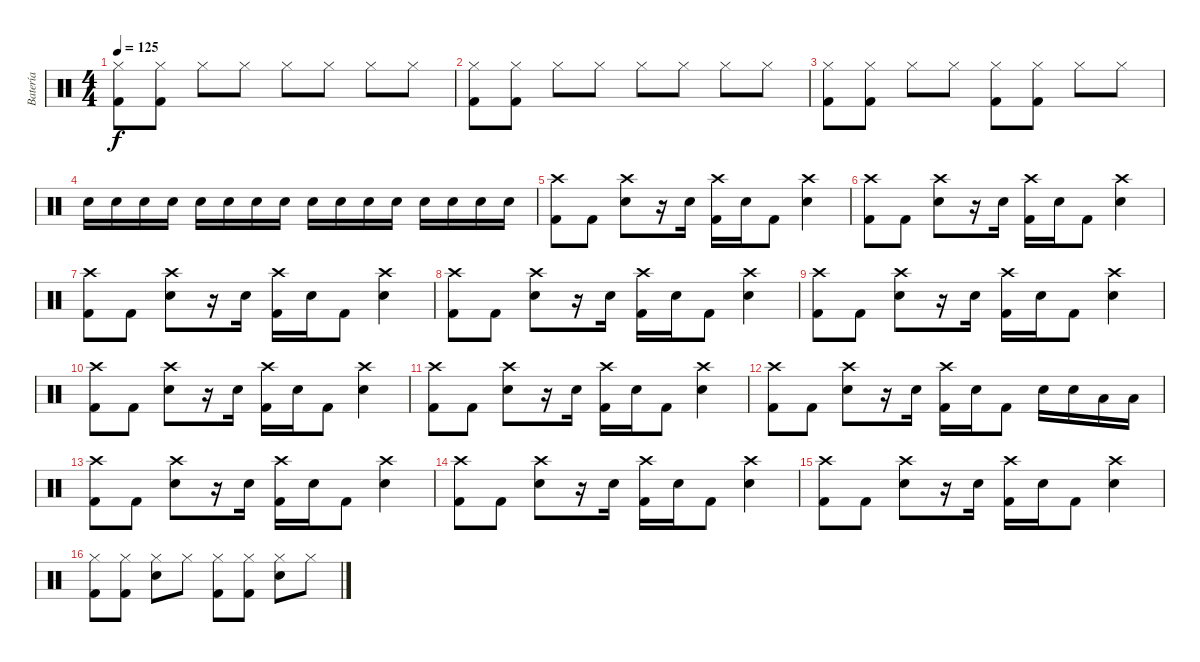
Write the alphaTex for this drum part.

\track ("Batería" "Batería") {instrument percussion}
\staff {score}
\articulation defaults
\ts (4 4)
\tempo 125
\clef neutral
\ks c
("Hi-Hat (closed)" "Kick (hit) 2").8{dy f} ("Hi-Hat (closed)" "Kick (hit) 2").8 "Hi-Hat (closed)".8 "Hi-Hat (closed)".8 "Hi-Hat (closed)".8 "Hi-Hat (closed)".8 "Hi-Hat (closed)".8 "Hi-Hat (closed)".8 |
("Hi-Hat (closed)" "Kick (hit) 2").8 ("Hi-Hat (closed)" "Kick (hit) 2").8 "Hi-Hat (closed)".8 "Hi-Hat (closed)".8 "Hi-Hat (closed)".8 "Hi-Hat (closed)".8 "Hi-Hat (closed)".8 "Hi-Hat (closed)".8 |
("Hi-Hat (closed)" "Kick (hit) 2").8 ("Hi-Hat (closed)" "Kick (hit) 2").8 "Hi-Hat (closed)".8 "Hi-Hat (closed)".8 ("Hi-Hat (closed)" "Kick (hit) 2").8 ("Hi-Hat (closed)" "Kick (hit) 2").8 "Hi-Hat (closed)".8 "Hi-Hat (closed)".8 |
"Snare (hit) 2".16 "Snare (hit) 2".16 "Snare (hit) 2".16 "Snare (hit) 2".16 "Snare (hit) 2".16 "Snare (hit) 2".16 "Snare (hit) 2".16 "Snare (hit) 2".16 "Snare (hit) 2".16 "Snare (hit) 2".16 "Snare (hit) 2".16 "Snare (hit) 2".16 "Snare (hit) 2".16 "Snare (hit) 2".16 "Snare (hit) 2".16 "Snare (hit) 2".16 |
("Crash high (hit)" "Kick (hit) 2").8 "Kick (hit) 2".8 ("Crash high (hit)" "Snare (hit) 2").8 r.16 "Snare (hit) 2".16 ("Crash high (hit)" "Kick (hit) 2").16 "Snare (hit) 2".16 "Kick (hit) 2".8 ("Crash high (hit)" "Snare (hit) 2").4 |
("Crash high (hit)" "Kick (hit) 2").8 "Kick (hit) 2".8 ("Crash high (hit)" "Snare (hit) 2").8 r.16 "Snare (hit) 2".16 ("Crash high (hit)" "Kick (hit) 2").16 "Snare (hit) 2".16 "Kick (hit) 2".8 ("Crash high (hit)" "Snare (hit) 2").4 |
("Crash high (hit)" "Kick (hit) 2").8 "Kick (hit) 2".8 ("Crash high (hit)" "Snare (hit) 2").8 r.16 "Snare (hit) 2".16 ("Crash high (hit)" "Kick (hit) 2").16 "Snare (hit) 2".16 "Kick (hit) 2".8 ("Crash high (hit)" "Snare (hit) 2").4 |
("Crash high (hit)" "Kick (hit) 2").8 "Kick (hit) 2".8 ("Crash high (hit)" "Snare (hit) 2").8 r.16 "Snare (hit) 2".16 ("Crash high (hit)" "Kick (hit) 2").16 "Snare (hit) 2".16 "Kick (hit) 2".8 ("Crash high (hit)" "Snare (hit) 2").4 |
("Crash high (hit)" "Kick (hit) 2").8 "Kick (hit) 2".8 ("Crash high (hit)" "Snare (hit) 2").8 r.16 "Snare (hit) 2".16 ("Crash high (hit)" "Kick (hit) 2").16 "Snare (hit) 2".16 "Kick (hit) 2".8 ("Crash high (hit)" "Snare (hit) 2").4 |
("Crash high (hit)" "Kick (hit) 2").8 "Kick (hit) 2".8 ("Crash high (hit)" "Snare (hit) 2").8 r.16 "Snare (hit) 2".16 ("Crash high (hit)" "Kick (hit) 2").16 "Snare (hit) 2".16 "Kick (hit) 2".8 ("Crash high (hit)" "Snare (hit) 2").4 |
("Crash high (hit)" "Kick (hit) 2").8 "Kick (hit) 2".8 ("Crash high (hit)" "Snare (hit) 2").8 r.16 "Snare (hit) 2".16 ("Crash high (hit)" "Kick (hit) 2").16 "Snare (hit) 2".16 "Kick (hit) 2".8 ("Crash high (hit)" "Snare (hit) 2").4 |
("Crash high (hit)" "Kick (hit) 2").8 "Kick (hit) 2".8 ("Crash high (hit)" "Snare (hit) 2").8 r.16 "Snare (hit) 2".16 ("Crash high (hit)" "Kick (hit) 2").16 "Snare (hit) 2".16 "Kick (hit) 2".8 "Snare (hit) 2".16 "Snare (hit) 2".16 "Low Tom (hit)".16 "Low Tom (hit)".16 |
("Crash high (hit)" "Kick (hit) 2").8 "Kick (hit) 2".8 ("Crash high (hit)" "Snare (hit) 2").8 r.16 "Snare (hit) 2".16 ("Crash high (hit)" "Kick (hit) 2").16 "Snare (hit) 2".16 "Kick (hit) 2".8 ("Crash high (hit)" "Snare (hit) 2").4 |
("Crash high (hit)" "Kick (hit) 2").8 "Kick (hit) 2".8 ("Crash high (hit)" "Snare (hit) 2").8 r.16 "Snare (hit) 2".16 ("Crash high (hit)" "Kick (hit) 2").16 "Snare (hit) 2".16 "Kick (hit) 2".8 ("Crash high (hit)" "Snare (hit) 2").4 |
("Crash high (hit)" "Kick (hit) 2").8 "Kick (hit) 2".8 ("Crash high (hit)" "Snare (hit) 2").8 r.16 "Snare (hit) 2".16 ("Crash high (hit)" "Kick (hit) 2").16 "Snare (hit) 2".16 "Kick (hit) 2".8 ("Crash high (hit)" "Snare (hit) 2").4 |
("Hi-Hat (closed)" "Kick (hit) 2").8 ("Hi-Hat (closed)" "Kick (hit) 2").8 ("Hi-Hat (closed)" "Snare (hit) 2").8 "Hi-Hat (closed)".8 ("Hi-Hat (closed)" "Kick (hit) 2").8 ("Hi-Hat (closed)" "Kick (hit) 2").8 ("Hi-Hat (closed)" "Snare (hit) 2").8 "Hi-Hat (closed)".8
